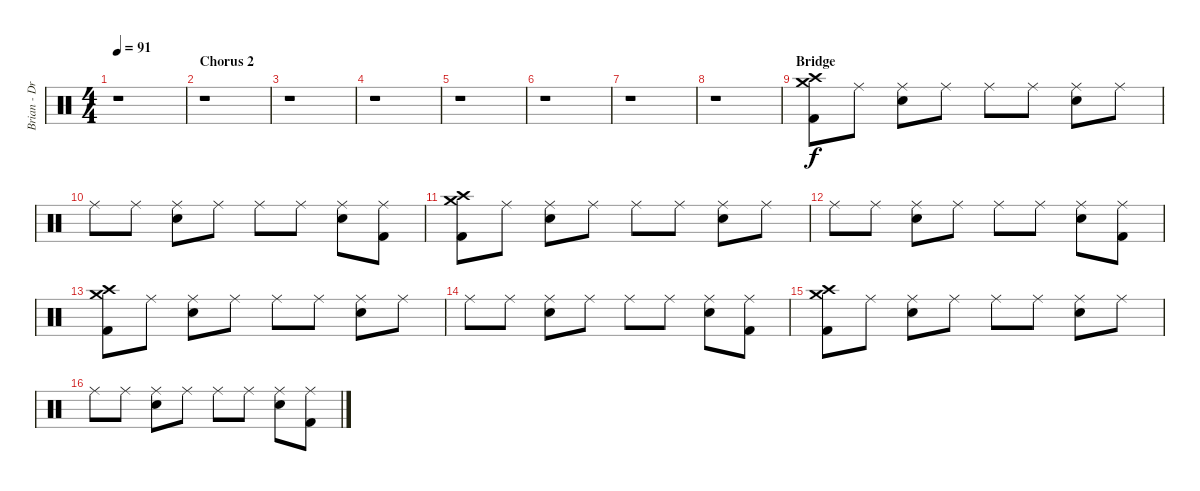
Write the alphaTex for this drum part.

\track ("Brian - Drums" "Brian - Dr") {instrument percussion}
\staff {score}
\articulation defaults
\ts (4 4)
\tempo 91
\clef neutral
\ks c
r.1{dy f} |
\section ("" "Chorus 2")
r.1 |
r.1 |
r.1 |
r.1 |
r.1 |
r.1 |
r.1 |
\section ("" "Bridge")
("Crash medium (hit)" "Crash high (hit)" "Kick (hit) 2").8 "Ride (middle)".8 ("Ride (middle)" "Snare (hit) 2").8 "Ride (middle)".8 "Ride (middle)".8 "Ride (middle)".8 ("Ride (middle)" "Snare (hit) 2").8 "Ride (middle)".8 |
"Ride (middle)".8 "Ride (middle)".8 ("Ride (middle)" "Snare (hit) 2").8 "Ride (middle)".8 "Ride (middle)".8 "Ride (middle)".8 ("Ride (middle)" "Snare (hit) 2").8 ("Ride (middle)" "Kick (hit) 2").8 |
("Crash medium (hit)" "Crash high (hit)" "Kick (hit) 2").8 "Ride (middle)".8 ("Ride (middle)" "Snare (hit) 2").8 "Ride (middle)".8 "Ride (middle)".8 "Ride (middle)".8 ("Ride (middle)" "Snare (hit) 2").8 "Ride (middle)".8 |
"Ride (middle)".8 "Ride (middle)".8 ("Ride (middle)" "Snare (hit) 2").8 "Ride (middle)".8 "Ride (middle)".8 "Ride (middle)".8 ("Ride (middle)" "Snare (hit) 2").8 ("Ride (middle)" "Kick (hit) 2").8 |
("Crash medium (hit)" "Crash high (hit)" "Kick (hit) 2").8 "Ride (middle)".8 ("Ride (middle)" "Snare (hit) 2").8 "Ride (middle)".8 "Ride (middle)".8 "Ride (middle)".8 ("Ride (middle)" "Snare (hit) 2").8 "Ride (middle)".8 |
"Ride (middle)".8 "Ride (middle)".8 ("Ride (middle)" "Snare (hit) 2").8 "Ride (middle)".8 "Ride (middle)".8 "Ride (middle)".8 ("Ride (middle)" "Snare (hit) 2").8 ("Ride (middle)" "Kick (hit) 2").8 |
("Crash medium (hit)" "Crash high (hit)" "Kick (hit) 2").8 "Ride (middle)".8 ("Ride (middle)" "Snare (hit) 2").8 "Ride (middle)".8 "Ride (middle)".8 "Ride (middle)".8 ("Ride (middle)" "Snare (hit) 2").8 "Ride (middle)".8 |
"Ride (middle)".8 "Ride (middle)".8 ("Ride (middle)" "Snare (hit) 2").8 "Ride (middle)".8 "Ride (middle)".8 "Ride (middle)".8 ("Ride (middle)" "Snare (hit) 2").8 ("Ride (middle)" "Kick (hit) 2").8
